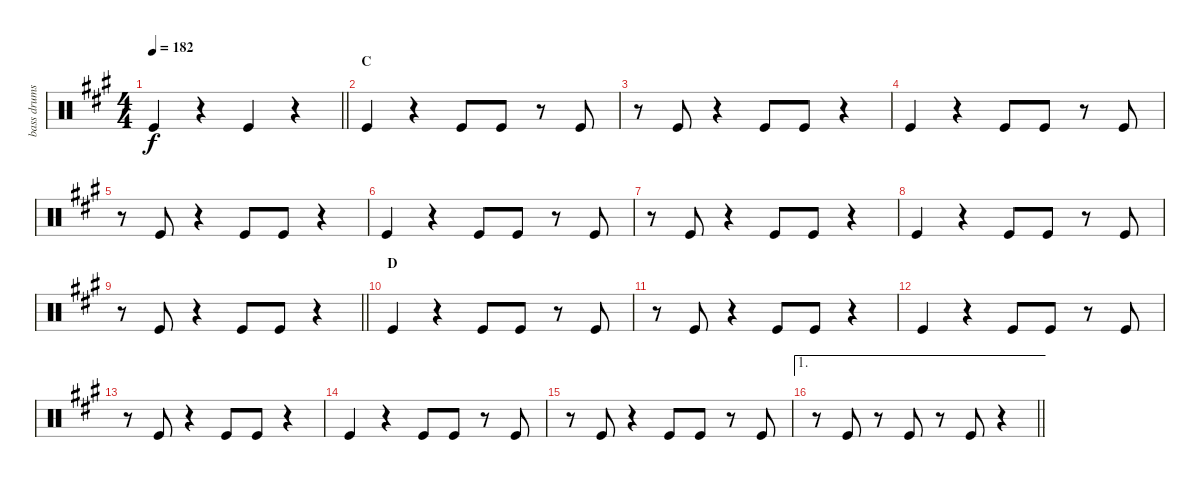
\track ("bass drums" "bass drums") {instrument percussion}
\staff {score}
\articulation defaults
\ts (4 4)
\tempo 182
\clef neutral
\barLineRight lightlight
\ks f#minor "Kick (hit)".4{dy f}
r.4 "Kick (hit)".4 r.4 |
\section ("" "C")
"Kick (hit)".4 r.4 "Kick (hit)".8 "Kick (hit)".8 r.8 "Kick (hit)".8 |
r.8 "Kick (hit)".8 r.4 "Kick (hit)".8 "Kick (hit)".8 r.4 |
"Kick (hit)".4 r.4 "Kick (hit)".8 "Kick (hit)".8 r.8 "Kick (hit)".8 |
r.8 "Kick (hit)".8 r.4 "Kick (hit)".8 "Kick (hit)".8 r.4 |
"Kick (hit)".4 r.4 "Kick (hit)".8 "Kick (hit)".8 r.8 "Kick (hit)".8 |
r.8 "Kick (hit)".8 r.4 "Kick (hit)".8 "Kick (hit)".8 r.4 |
"Kick (hit)".4 r.4 "Kick (hit)".8 "Kick (hit)".8 r.8 "Kick (hit)".8 |
\barLineRight lightlight
r.8 "Kick (hit)".8 r.4 "Kick (hit)".8 "Kick (hit)".8 r.4 |
\section ("" "D")
"Kick (hit)".4 r.4 "Kick (hit)".8 "Kick (hit)".8 r.8 "Kick (hit)".8 |
r.8 "Kick (hit)".8 r.4 "Kick (hit)".8 "Kick (hit)".8 r.4 |
"Kick (hit)".4 r.4 "Kick (hit)".8 "Kick (hit)".8 r.8 "Kick (hit)".8 |
r.8 "Kick (hit)".8 r.4 "Kick (hit)".8 "Kick (hit)".8 r.4 |
"Kick (hit)".4 r.4 "Kick (hit)".8 "Kick (hit)".8 r.8 "Kick (hit)".8 |
r.8 "Kick (hit)".8 r.4 "Kick (hit)".8 "Kick (hit)".8 r.8 "Kick (hit)".8 |
\ae 1
\barLineRight lightlight
r.8 "Kick (hit)".8 r.8 "Kick (hit)".8 r.8 "Kick (hit)".8 r.4
